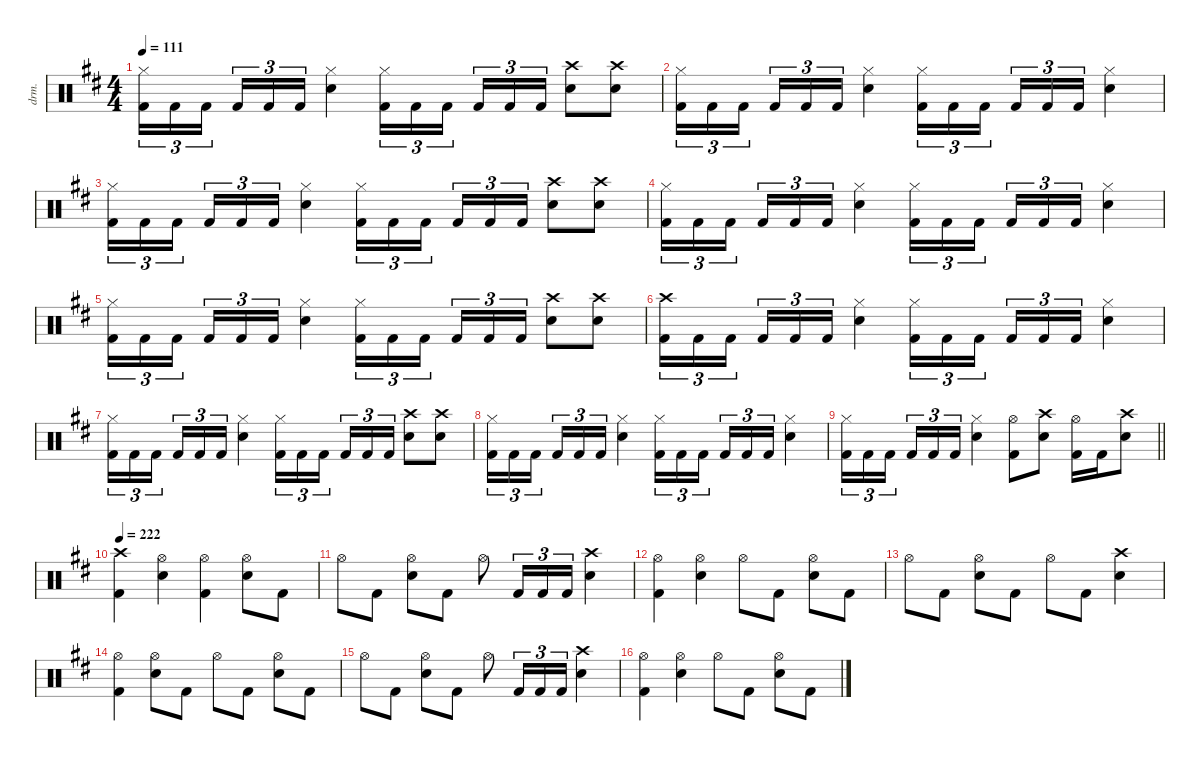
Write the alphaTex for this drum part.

\defaultSystemsLayout 4
\hideDynamics
\bracketExtendMode nobrackets
\otherSystemsTrackNameOrientation horizontal
\track ("Lars Ulrich" "drm.") {defaultSystemsLayout 4 instrument percussion}
\staff {score}
\articulation defaults
\ts (4 4)
\tempo 111
\clef neutral
\ks bminor
("Hi-Hat (closed)"{acc forcenatural} "Kick (hit) 2"{acc forcenatural}).16{tu (3 2) dy f} "Kick (hit) 2"{acc forcenatural}.16{tu (3 2)} "Kick (hit) 2"{acc forcenatural}.16{tu (3 2)} "Kick (hit) 2"{acc forcenatural}.16{tu (3 2)} "Kick (hit) 2"{acc forcenatural}.16{tu (3 2)} "Kick (hit) 2"{acc forcenatural}.16{tu (3 2)} ("Hi-Hat (closed)"{acc forcenatural} "Snare (hit) 2"{acc forcenatural}).4 ("Hi-Hat (closed)"{acc forcenatural} "Kick (hit) 2"{acc forcenatural}).16{tu (3 2)} "Kick (hit) 2"{acc forcenatural}.16{tu (3 2)} "Kick (hit) 2"{acc forcenatural}.16{tu (3 2)} "Kick (hit) 2"{acc forcenatural}.16{tu (3 2)} "Kick (hit) 2"{acc forcenatural}.16{tu (3 2)} "Kick (hit) 2"{acc forcenatural}.16{tu (3 2)} ("Crash high (hit)"{acc forcenatural} "Snare (hit) 2"{acc forcenatural}).8 ("Crash high (hit)"{acc forcenatural} "Snare (hit) 2"{acc forcenatural}).8 |
("Hi-Hat (closed)"{acc forcenatural} "Kick (hit) 2"{acc forcenatural}).16{tu (3 2)} "Kick (hit) 2"{acc forcenatural}.16{tu (3 2)} "Kick (hit) 2"{acc forcenatural}.16{tu (3 2)} "Kick (hit) 2"{acc forcenatural}.16{tu (3 2)} "Kick (hit) 2"{acc forcenatural}.16{tu (3 2)} "Kick (hit) 2"{acc forcenatural}.16{tu (3 2)} ("Hi-Hat (closed)"{acc forcenatural} "Snare (hit) 2"{acc forcenatural}).4 ("Hi-Hat (closed)"{acc forcenatural} "Kick (hit) 2"{acc forcenatural}).16{tu (3 2)} "Kick (hit) 2"{acc forcenatural}.16{tu (3 2)} "Kick (hit) 2"{acc forcenatural}.16{tu (3 2)} "Kick (hit) 2"{acc forcenatural}.16{tu (3 2)} "Kick (hit) 2"{acc forcenatural}.16{tu (3 2)} "Kick (hit) 2"{acc forcenatural}.16{tu (3 2)} ("Hi-Hat (closed)"{acc forcenatural} "Snare (hit) 2"{acc forcenatural}).4 |
("Hi-Hat (closed)"{acc forcenatural} "Kick (hit) 2"{acc forcenatural}).16{tu (3 2)} "Kick (hit) 2"{acc forcenatural}.16{tu (3 2)} "Kick (hit) 2"{acc forcenatural}.16{tu (3 2)} "Kick (hit) 2"{acc forcenatural}.16{tu (3 2)} "Kick (hit) 2"{acc forcenatural}.16{tu (3 2)} "Kick (hit) 2"{acc forcenatural}.16{tu (3 2)} ("Hi-Hat (closed)"{acc forcenatural} "Snare (hit) 2"{acc forcenatural}).4 ("Hi-Hat (closed)"{acc forcenatural} "Kick (hit) 2"{acc forcenatural}).16{tu (3 2)} "Kick (hit) 2"{acc forcenatural}.16{tu (3 2)} "Kick (hit) 2"{acc forcenatural}.16{tu (3 2)} "Kick (hit) 2"{acc forcenatural}.16{tu (3 2)} "Kick (hit) 2"{acc forcenatural}.16{tu (3 2)} "Kick (hit) 2"{acc forcenatural}.16{tu (3 2)} ("Crash high (hit)"{acc forcenatural} "Snare (hit) 2"{acc forcenatural}).8 ("Crash high (hit)"{acc forcenatural} "Snare (hit) 2"{acc forcenatural}).8 |
("Hi-Hat (closed)"{acc forcenatural} "Kick (hit) 2"{acc forcenatural}).16{tu (3 2)} "Kick (hit) 2"{acc forcenatural}.16{tu (3 2)} "Kick (hit) 2"{acc forcenatural}.16{tu (3 2)} "Kick (hit) 2"{acc forcenatural}.16{tu (3 2)} "Kick (hit) 2"{acc forcenatural}.16{tu (3 2)} "Kick (hit) 2"{acc forcenatural}.16{tu (3 2)} ("Hi-Hat (closed)"{acc forcenatural} "Snare (hit) 2"{acc forcenatural}).4 ("Hi-Hat (closed)"{acc forcenatural} "Kick (hit) 2"{acc forcenatural}).16{tu (3 2)} "Kick (hit) 2"{acc forcenatural}.16{tu (3 2)} "Kick (hit) 2"{acc forcenatural}.16{tu (3 2)} "Kick (hit) 2"{acc forcenatural}.16{tu (3 2)} "Kick (hit) 2"{acc forcenatural}.16{tu (3 2)} "Kick (hit) 2"{acc forcenatural}.16{tu (3 2)} ("Hi-Hat (closed)"{acc forcenatural} "Snare (hit) 2"{acc forcenatural}).4 |
("Hi-Hat (closed)"{acc forcenatural} "Kick (hit) 2"{acc forcenatural}).16{tu (3 2)} "Kick (hit) 2"{acc forcenatural}.16{tu (3 2)} "Kick (hit) 2"{acc forcenatural}.16{tu (3 2)} "Kick (hit) 2"{acc forcenatural}.16{tu (3 2)} "Kick (hit) 2"{acc forcenatural}.16{tu (3 2)} "Kick (hit) 2"{acc forcenatural}.16{tu (3 2)} ("Hi-Hat (closed)"{acc forcenatural} "Snare (hit) 2"{acc forcenatural}).4 ("Hi-Hat (closed)"{acc forcenatural} "Kick (hit) 2"{acc forcenatural}).16{tu (3 2)} "Kick (hit) 2"{acc forcenatural}.16{tu (3 2)} "Kick (hit) 2"{acc forcenatural}.16{tu (3 2)} "Kick (hit) 2"{acc forcenatural}.16{tu (3 2)} "Kick (hit) 2"{acc forcenatural}.16{tu (3 2)} "Kick (hit) 2"{acc forcenatural}.16{tu (3 2)} ("Crash high (hit)"{acc forcenatural} "Snare (hit) 2"{acc forcenatural}).8 ("Crash high (hit)"{acc forcenatural} "Snare (hit) 2"{acc forcenatural}).8 |
("Crash high (hit)"{acc forcenatural} "Kick (hit) 2"{acc forcenatural}).16{tu (3 2)} "Kick (hit) 2"{acc forcenatural}.16{tu (3 2)} "Kick (hit) 2"{acc forcenatural}.16{tu (3 2)} "Kick (hit) 2"{acc forcenatural}.16{tu (3 2)} "Kick (hit) 2"{acc forcenatural}.16{tu (3 2)} "Kick (hit) 2"{acc forcenatural}.16{tu (3 2)} ("Hi-Hat (closed)"{acc forcenatural} "Snare (hit) 2"{acc forcenatural}).4 ("Hi-Hat (closed)"{acc forcenatural} "Kick (hit) 2"{acc forcenatural}).16{tu (3 2)} "Kick (hit) 2"{acc forcenatural}.16{tu (3 2)} "Kick (hit) 2"{acc forcenatural}.16{tu (3 2)} "Kick (hit) 2"{acc forcenatural}.16{tu (3 2)} "Kick (hit) 2"{acc forcenatural}.16{tu (3 2)} "Kick (hit) 2"{acc forcenatural}.16{tu (3 2)} ("Hi-Hat (closed)"{acc forcenatural} "Snare (hit) 2"{acc forcenatural}).4 |
("Hi-Hat (closed)"{acc forcenatural} "Kick (hit) 2"{acc forcenatural}).16{tu (3 2)} "Kick (hit) 2"{acc forcenatural}.16{tu (3 2)} "Kick (hit) 2"{acc forcenatural}.16{tu (3 2)} "Kick (hit) 2"{acc forcenatural}.16{tu (3 2)} "Kick (hit) 2"{acc forcenatural}.16{tu (3 2)} "Kick (hit) 2"{acc forcenatural}.16{tu (3 2)} ("Hi-Hat (closed)"{acc forcenatural} "Snare (hit) 2"{acc forcenatural}).4 ("Hi-Hat (closed)"{acc forcenatural} "Kick (hit) 2"{acc forcenatural}).16{tu (3 2)} "Kick (hit) 2"{acc forcenatural}.16{tu (3 2)} "Kick (hit) 2"{acc forcenatural}.16{tu (3 2)} "Kick (hit) 2"{acc forcenatural}.16{tu (3 2)} "Kick (hit) 2"{acc forcenatural}.16{tu (3 2)} "Kick (hit) 2"{acc forcenatural}.16{tu (3 2)} ("Crash high (hit)"{acc forcenatural} "Snare (hit) 2"{acc forcenatural}).8 ("Crash high (hit)"{acc forcenatural} "Snare (hit) 2"{acc forcenatural}).8 |
("Hi-Hat (closed)"{acc forcenatural} "Kick (hit) 2"{acc forcenatural}).16{tu (3 2)} "Kick (hit) 2"{acc forcenatural}.16{tu (3 2)} "Kick (hit) 2"{acc forcenatural}.16{tu (3 2)} "Kick (hit) 2"{acc forcenatural}.16{tu (3 2)} "Kick (hit) 2"{acc forcenatural}.16{tu (3 2)} "Kick (hit) 2"{acc forcenatural}.16{tu (3 2)} ("Hi-Hat (closed)"{acc forcenatural} "Snare (hit) 2"{acc forcenatural}).4 ("Hi-Hat (closed)"{acc forcenatural} "Kick (hit) 2"{acc forcenatural}).16{tu (3 2)} "Kick (hit) 2"{acc forcenatural}.16{tu (3 2)} "Kick (hit) 2"{acc forcenatural}.16{tu (3 2)} "Kick (hit) 2"{acc forcenatural}.16{tu (3 2)} "Kick (hit) 2"{acc forcenatural}.16{tu (3 2)} "Kick (hit) 2"{acc forcenatural}.16{tu (3 2)} ("Hi-Hat (closed)"{acc forcenatural} "Snare (hit) 2"{acc forcenatural}).4 |
\barLineRight lightlight
("Hi-Hat (closed)"{acc forcenatural} "Kick (hit) 2"{acc forcenatural}).16{tu (3 2)} "Kick (hit) 2"{acc forcenatural}.16{tu (3 2)} "Kick (hit) 2"{acc forcenatural}.16{tu (3 2)} "Kick (hit) 2"{acc forcenatural}.16{tu (3 2)} "Kick (hit) 2"{acc forcenatural}.16{tu (3 2)} "Kick (hit) 2"{acc forcenatural}.16{tu (3 2)} ("Hi-Hat (closed)"{acc forcenatural} "Snare (hit) 2"{acc forcenatural}).4 ("Hi-Hat (open)"{acc forcenatural} "Kick (hit) 2"{acc forcenatural}).8 ("Crash high (hit)"{acc forcenatural} "Snare (hit) 2"{acc forcenatural}).8 ("Hi-Hat (open)"{acc forcenatural} "Kick (hit) 2"{acc forcenatural}).16 "Kick (hit) 2"{acc forcenatural}.16 ("Crash high (hit)"{acc forcenatural} "Snare (hit) 2"{acc forcenatural}).8 |
\tempo 222
("Crash high (hit)"{acc forcenatural} "Kick (hit) 2"{acc forcenatural}).4 ("Hi-Hat (open)"{acc forcenatural} "Snare (hit) 2"{acc forcenatural}).4 ("Hi-Hat (open)"{acc forcenatural} "Kick (hit) 2"{acc forcenatural}).4 ("Hi-Hat (open)"{acc forcenatural} "Snare (hit) 2"{acc forcenatural}).8 "Kick (hit) 2"{acc forcenatural}.8 |
"Hi-Hat (open)"{acc forcenatural}.8 "Kick (hit) 2"{acc forcenatural}.8 ("Hi-Hat (open)"{acc forcenatural} "Snare (hit) 2"{acc forcenatural}).8 "Kick (hit) 2"{acc forcenatural}.8 "Hi-Hat (open)"{acc forcenatural}.8 "Kick (hit) 2"{acc forcenatural}.16{tu (3 2)} "Kick (hit) 2"{acc forcenatural}.16{tu (3 2)} "Kick (hit) 2"{acc forcenatural}.16{tu (3 2)} ("Crash high (hit)"{acc forcenatural} "Snare (hit) 2"{acc forcenatural}).4 |
("Hi-Hat (open)"{acc forcenatural} "Kick (hit) 2"{acc forcenatural}).4 ("Hi-Hat (open)"{acc forcenatural} "Snare (hit) 2"{acc forcenatural}).4 "Hi-Hat (open)"{acc forcenatural}.8 "Kick (hit) 2"{acc forcenatural}.8 ("Hi-Hat (open)"{acc forcenatural} "Snare (hit) 2"{acc forcenatural}).8 "Kick (hit) 2"{acc forcenatural}.8 |
"Hi-Hat (open)"{acc forcenatural}.8 "Kick (hit) 2"{acc forcenatural}.8 ("Hi-Hat (open)"{acc forcenatural} "Snare (hit) 2"{acc forcenatural}).8 "Kick (hit) 2"{acc forcenatural}.8 "Hi-Hat (open)"{acc forcenatural}.8 "Kick (hit) 2"{acc forcenatural}.8 ("Crash high (hit)"{acc forcenatural} "Snare (hit) 2"{acc forcenatural}).4 |
("Hi-Hat (open)"{acc forcenatural} "Kick (hit) 2"{acc forcenatural}).4 ("Hi-Hat (open)"{acc forcenatural} "Snare (hit) 2"{acc forcenatural}).8 "Kick (hit) 2"{acc forcenatural}.8 "Hi-Hat (open)"{acc forcenatural}.8 "Kick (hit) 2"{acc forcenatural}.8 ("Hi-Hat (open)"{acc forcenatural} "Snare (hit) 2"{acc forcenatural}).8 "Kick (hit) 2"{acc forcenatural}.8 |
"Hi-Hat (open)"{acc forcenatural}.8 "Kick (hit) 2"{acc forcenatural}.8 ("Hi-Hat (open)"{acc forcenatural} "Snare (hit) 2"{acc forcenatural}).8 "Kick (hit) 2"{acc forcenatural}.8 "Hi-Hat (open)"{acc forcenatural}.8 "Kick (hit) 2"{acc forcenatural}.16{tu (3 2)} "Kick (hit) 2"{acc forcenatural}.16{tu (3 2)} "Kick (hit) 2"{acc forcenatural}.16{tu (3 2)} ("Crash high (hit)"{acc forcenatural} "Snare (hit) 2"{acc forcenatural}).4 |
("Hi-Hat (open)"{acc forcenatural} "Kick (hit) 2"{acc forcenatural}).4 ("Hi-Hat (open)"{acc forcenatural} "Snare (hit) 2"{acc forcenatural}).4 "Hi-Hat (open)"{acc forcenatural}.8 "Kick (hit) 2"{acc forcenatural}.8 ("Hi-Hat (open)"{acc forcenatural} "Snare (hit) 2"{acc forcenatural}).8 "Kick (hit) 2"{acc forcenatural}.8
